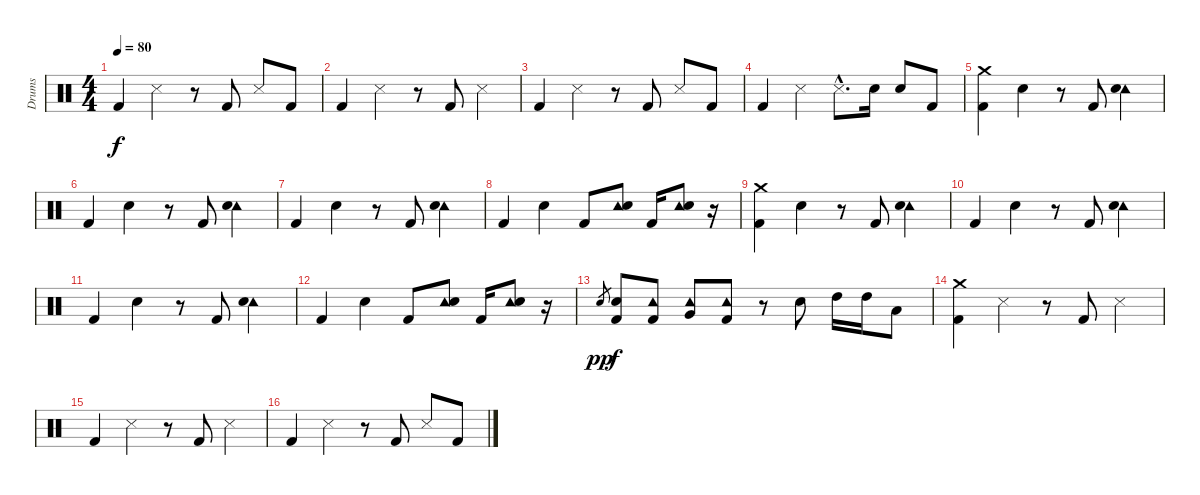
\track ("Drums" "Drums") {instrument percussion}
\staff {score}
\articulation defaults
\ts (4 4)
\tempo 80
\clef neutral
\ks c "Kick (hit) 2".4{dy f} "Snare (side stick) 3".4
r.8 "Kick (hit) 2".8 "Snare (side stick) 3".8 "Kick (hit) 2".8 |
"Kick (hit) 2".4 "Snare (side stick) 3".4 r.8 "Kick (hit) 2".8 "Snare (side stick) 3".4 |
"Kick (hit) 2".4 "Snare (side stick) 3".4 r.8 "Kick (hit) 2".8 "Snare (side stick) 3".8 "Kick (hit) 2".8 |
"Kick (hit) 2".4 "Snare (side stick) 3".4 "Snare (side stick) 3"{hac}.8{d} "Electric Snare (hit)".16 "Electric Snare (hit)".8 "Kick (hit) 2".8 |
("Crash medium (hit)" "Kick (hit) 2").4 "Electric Snare (hit)".4 r.8 "Kick (hit) 2".8 ("Tambourine (hit)" "Electric Snare (hit)").4 |
"Kick (hit) 2".4 "Electric Snare (hit)".4 r.8 "Kick (hit) 2".8 ("Tambourine (hit)" "Electric Snare (hit)").4 |
"Kick (hit) 2".4 "Electric Snare (hit)".4 r.8 "Kick (hit) 2".8 ("Tambourine (hit)" "Electric Snare (hit)").4 |
"Kick (hit) 2".4 "Electric Snare (hit)".4 "Kick (hit) 2".8 ("Tambourine (hit)" "Electric Snare (hit)").8 "Kick (hit) 2".16 ("Tambourine (hit)" "Electric Snare (hit)").8 r.16 |
("Crash medium (hit)" "Kick (hit) 2").4 "Electric Snare (hit)".4 r.8 "Kick (hit) 2".8 ("Tambourine (hit)" "Electric Snare (hit)").4 |
"Kick (hit) 2".4 "Electric Snare (hit)".4 r.8 "Kick (hit) 2".8 ("Tambourine (hit)" "Electric Snare (hit)").4 |
"Kick (hit) 2".4 "Electric Snare (hit)".4 r.8 "Kick (hit) 2".8 ("Tambourine (hit)" "Electric Snare (hit)").4 |
"Kick (hit) 2".4 "Electric Snare (hit)".4 "Kick (hit) 2".8 ("Tambourine (hit)" "Electric Snare (hit)").8 "Kick (hit) 2".16 ("Tambourine (hit)" "Electric Snare (hit)").8 r.16 |
"Electric Snare (hit)".8{gr dy pp} ("Electric Snare (hit)" "Kick (hit) 2").8{dy f} ("Tambourine (hit)" "Kick (hit) 2").8 ("Tambourine (hit)" "Very Low Tom (hit)").8 ("Tambourine (hit)" "Kick (hit) 2").8 r.8 "Electric Snare (hit)".8 "High Tom (hit)".16 "High Tom (hit)".16 "Low Tom (hit)".8 |
("Crash medium (hit)" "Kick (hit) 2").4 "Snare (side stick) 3".4 r.8 "Kick (hit) 2".8 "Snare (side stick) 3".4 |
"Kick (hit) 2".4 "Snare (side stick) 3".4 r.8 "Kick (hit) 2".8 "Snare (side stick) 3".4 |
"Kick (hit) 2".4 "Snare (side stick) 3".4 r.8 "Kick (hit) 2".8 "Snare (side stick) 3".8 "Kick (hit) 2".8
